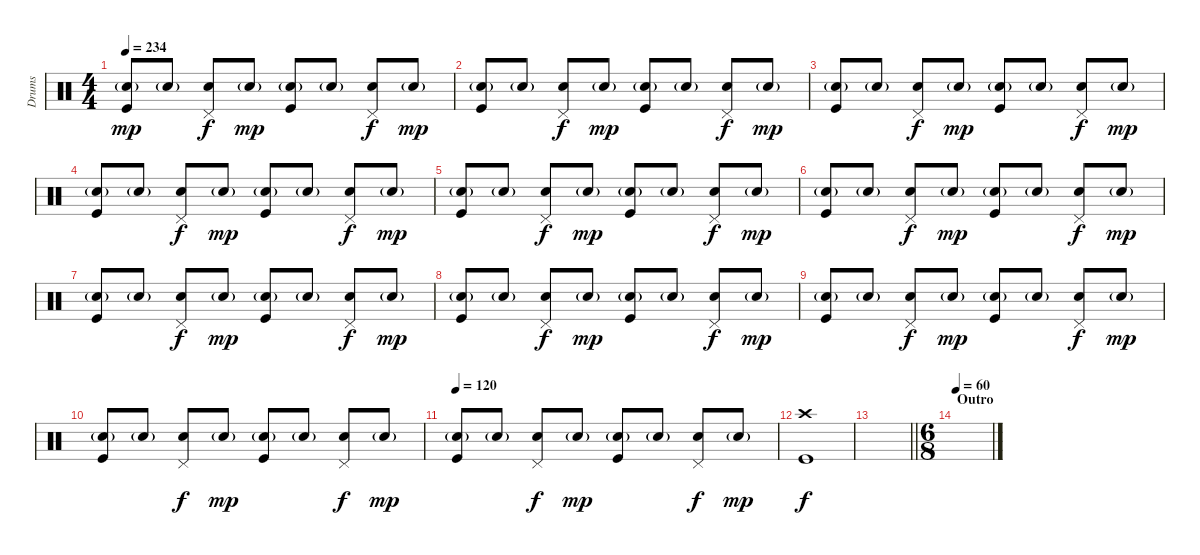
\track ("Drums" "Drums") {instrument percussion}
\staff {score}
\articulation defaults
\ts (4 4)
\tempo 234
\clef neutral
\ks c
("Snare (hit) 2"{g} "Kick (hit)").8{dy mp} "Snare (hit) 2"{g}.8 ("Snare (hit) 2" "Pedal Hi-Hat (hit)").8{dy f} "Snare (hit) 2"{g}.8{dy mp} ("Snare (hit) 2"{g} "Kick (hit)").8 "Snare (hit) 2"{g}.8 ("Snare (hit) 2" "Pedal Hi-Hat (hit)").8{dy f} "Snare (hit) 2"{g}.8{dy mp} |
("Snare (hit) 2"{g} "Kick (hit)").8 "Snare (hit) 2"{g}.8 ("Snare (hit) 2" "Pedal Hi-Hat (hit)").8{dy f} "Snare (hit) 2"{g}.8{dy mp} ("Snare (hit) 2"{g} "Kick (hit)").8 "Snare (hit) 2"{g}.8 ("Snare (hit) 2" "Pedal Hi-Hat (hit)").8{dy f} "Snare (hit) 2"{g}.8{dy mp} |
("Snare (hit) 2"{g} "Kick (hit)").8 "Snare (hit) 2"{g}.8 ("Snare (hit) 2" "Pedal Hi-Hat (hit)").8{dy f} "Snare (hit) 2"{g}.8{dy mp} ("Snare (hit) 2"{g} "Kick (hit)").8 "Snare (hit) 2"{g}.8 ("Snare (hit) 2" "Pedal Hi-Hat (hit)").8{dy f} "Snare (hit) 2"{g}.8{dy mp} |
("Snare (hit) 2"{g} "Kick (hit)").8 "Snare (hit) 2"{g}.8 ("Snare (hit) 2" "Pedal Hi-Hat (hit)").8{dy f} "Snare (hit) 2"{g}.8{dy mp} ("Snare (hit) 2"{g} "Kick (hit)").8 "Snare (hit) 2"{g}.8 ("Snare (hit) 2" "Pedal Hi-Hat (hit)").8{dy f} "Snare (hit) 2"{g}.8{dy mp} |
("Snare (hit) 2"{g} "Kick (hit)").8 "Snare (hit) 2"{g}.8 ("Snare (hit) 2" "Pedal Hi-Hat (hit)").8{dy f} "Snare (hit) 2"{g}.8{dy mp} ("Snare (hit) 2"{g} "Kick (hit)").8 "Snare (hit) 2"{g}.8 ("Snare (hit) 2" "Pedal Hi-Hat (hit)").8{dy f} "Snare (hit) 2"{g}.8{dy mp} |
("Snare (hit) 2"{g} "Kick (hit)").8 "Snare (hit) 2"{g}.8 ("Snare (hit) 2" "Pedal Hi-Hat (hit)").8{dy f} "Snare (hit) 2"{g}.8{dy mp} ("Snare (hit) 2"{g} "Kick (hit)").8 "Snare (hit) 2"{g}.8 ("Snare (hit) 2" "Pedal Hi-Hat (hit)").8{dy f} "Snare (hit) 2"{g}.8{dy mp} |
("Snare (hit) 2"{g} "Kick (hit)").8 "Snare (hit) 2"{g}.8 ("Snare (hit) 2" "Pedal Hi-Hat (hit)").8{dy f} "Snare (hit) 2"{g}.8{dy mp} ("Snare (hit) 2"{g} "Kick (hit)").8 "Snare (hit) 2"{g}.8 ("Snare (hit) 2" "Pedal Hi-Hat (hit)").8{dy f} "Snare (hit) 2"{g}.8{dy mp} |
("Snare (hit) 2"{g} "Kick (hit)").8 "Snare (hit) 2"{g}.8 ("Snare (hit) 2" "Pedal Hi-Hat (hit)").8{dy f} "Snare (hit) 2"{g}.8{dy mp} ("Snare (hit) 2"{g} "Kick (hit)").8 "Snare (hit) 2"{g}.8 ("Snare (hit) 2" "Pedal Hi-Hat (hit)").8{dy f} "Snare (hit) 2"{g}.8{dy mp} |
("Snare (hit) 2"{g} "Kick (hit)").8 "Snare (hit) 2"{g}.8 ("Snare (hit) 2" "Pedal Hi-Hat (hit)").8{dy f} "Snare (hit) 2"{g}.8{dy mp} ("Snare (hit) 2"{g} "Kick (hit)").8 "Snare (hit) 2"{g}.8 ("Snare (hit) 2" "Pedal Hi-Hat (hit)").8{dy f} "Snare (hit) 2"{g}.8{dy mp} |
("Snare (hit) 2"{g} "Kick (hit)").8 "Snare (hit) 2"{g}.8 ("Snare (hit) 2" "Pedal Hi-Hat (hit)").8{dy f} "Snare (hit) 2"{g}.8{dy mp} ("Snare (hit) 2"{g} "Kick (hit)").8 "Snare (hit) 2"{g}.8 ("Snare (hit) 2" "Pedal Hi-Hat (hit)").8{dy f} "Snare (hit) 2"{g}.8{dy mp} |
\tempo 120
("Snare (hit) 2"{g} "Kick (hit)").8 "Snare (hit) 2"{g}.8 ("Snare (hit) 2" "Pedal Hi-Hat (hit)").8{dy f} "Snare (hit) 2"{g}.8{dy mp} ("Snare (hit) 2"{g} "Kick (hit)").8 "Snare (hit) 2"{g}.8 ("Snare (hit) 2" "Pedal Hi-Hat (hit)").8{dy f} "Snare (hit) 2"{g}.8{dy mp} |
("Crash high (hit)" "Kick (hit)").1{dy f} |
\barLineRight lightlight
|
\ts (6 8)
\section ("" "Outro")
\tempo 60
